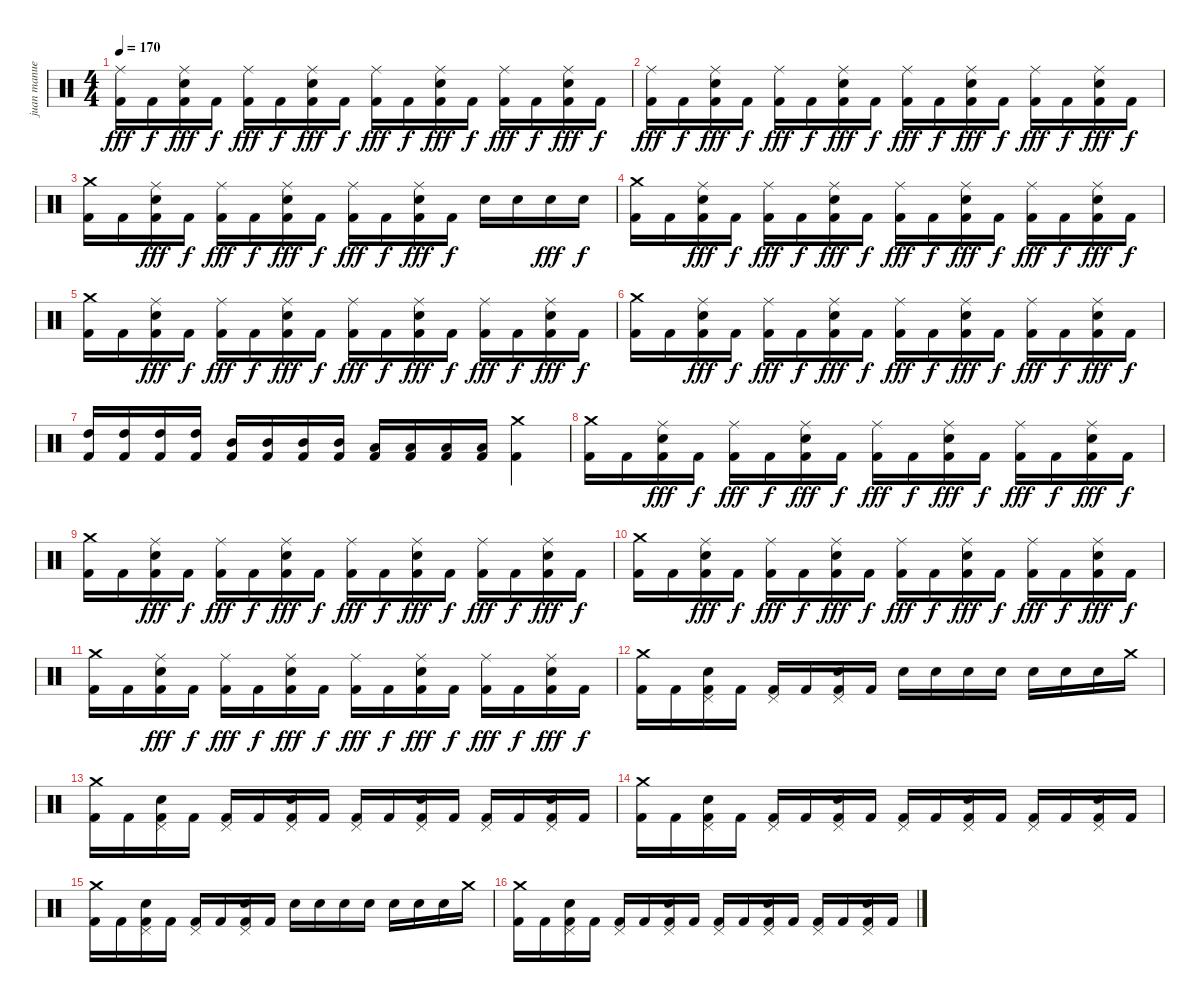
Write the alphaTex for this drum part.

\track ("juan manuel" "juan manue") {instrument percussion}
\staff {score}
\articulation defaults
\ts (4 4)
\tempo 170
\clef neutral
\ks c
("Ride (middle)" "Kick (hit) 2").16{dy fff} "Kick (hit) 2".16{dy f} ("Ride (middle)" "Electric Snare (hit)" "Kick (hit) 2").16{dy fff} "Kick (hit) 2".16{dy f} ("Ride (middle)" "Kick (hit) 2").16{dy fff} "Kick (hit) 2".16{dy f} ("Ride (middle)" "Electric Snare (hit)" "Kick (hit) 2").16{dy fff} "Kick (hit) 2".16{dy f} ("Ride (middle)" "Kick (hit) 2").16{dy fff} "Kick (hit) 2".16{dy f} ("Ride (middle)" "Electric Snare (hit)" "Kick (hit) 2").16{dy fff} "Kick (hit) 2".16{dy f} ("Ride (middle)" "Kick (hit) 2").16{dy fff} "Kick (hit) 2".16{dy f} ("Ride (middle)" "Electric Snare (hit)" "Kick (hit) 2").16{dy fff} "Kick (hit) 2".16{dy f} |
("Ride (middle)" "Kick (hit) 2").16{dy fff} "Kick (hit) 2".16{dy f} ("Ride (middle)" "Electric Snare (hit)" "Kick (hit) 2").16{dy fff} "Kick (hit) 2".16{dy f} ("Ride (middle)" "Kick (hit) 2").16{dy fff} "Kick (hit) 2".16{dy f} ("Ride (middle)" "Electric Snare (hit)" "Kick (hit) 2").16{dy fff} "Kick (hit) 2".16{dy f} ("Ride (middle)" "Kick (hit) 2").16{dy fff} "Kick (hit) 2".16{dy f} ("Ride (middle)" "Electric Snare (hit)" "Kick (hit) 2").16{dy fff} "Kick (hit) 2".16{dy f} ("Ride (middle)" "Kick (hit) 2").16{dy fff} "Kick (hit) 2".16{dy f} ("Ride (middle)" "Electric Snare (hit)" "Kick (hit) 2").16{dy fff} "Kick (hit) 2".16{dy f} |
("Crash medium (hit)" "Kick (hit) 2").16 "Kick (hit) 2".16 ("Ride (middle)" "Electric Snare (hit)" "Kick (hit) 2").16{dy fff} "Kick (hit) 2".16{dy f} ("Ride (middle)" "Kick (hit) 2").16{dy fff} "Kick (hit) 2".16{dy f} ("Ride (middle)" "Electric Snare (hit)" "Kick (hit) 2").16{dy fff} "Kick (hit) 2".16{dy f} ("Ride (middle)" "Kick (hit) 2").16{dy fff} "Kick (hit) 2".16{dy f} ("Ride (middle)" "Electric Snare (hit)" "Kick (hit) 2").16{dy fff} "Kick (hit) 2".16{dy f} "Electric Snare (hit)".16 "Electric Snare (hit)".16 "Electric Snare (hit)".16{dy fff} "Electric Snare (hit)".16{dy f} |
("Crash medium (hit)" "Kick (hit) 2").16 "Kick (hit) 2".16 ("Ride (middle)" "Electric Snare (hit)" "Kick (hit) 2").16{dy fff} "Kick (hit) 2".16{dy f} ("Ride (middle)" "Kick (hit) 2").16{dy fff} "Kick (hit) 2".16{dy f} ("Ride (middle)" "Electric Snare (hit)" "Kick (hit) 2").16{dy fff} "Kick (hit) 2".16{dy f} ("Ride (middle)" "Kick (hit) 2").16{dy fff} "Kick (hit) 2".16{dy f} ("Ride (middle)" "Electric Snare (hit)" "Kick (hit) 2").16{dy fff} "Kick (hit) 2".16{dy f} ("Ride (middle)" "Kick (hit) 2").16{dy fff} "Kick (hit) 2".16{dy f} ("Ride (middle)" "Electric Snare (hit)" "Kick (hit) 2").16{dy fff} "Kick (hit) 2".16{dy f} |
("Crash medium (hit)" "Kick (hit) 2").16 "Kick (hit) 2".16 ("Ride (middle)" "Electric Snare (hit)" "Kick (hit) 2").16{dy fff} "Kick (hit) 2".16{dy f} ("Ride (middle)" "Kick (hit) 2").16{dy fff} "Kick (hit) 2".16{dy f} ("Ride (middle)" "Electric Snare (hit)" "Kick (hit) 2").16{dy fff} "Kick (hit) 2".16{dy f} ("Ride (middle)" "Kick (hit) 2").16{dy fff} "Kick (hit) 2".16{dy f} ("Ride (middle)" "Electric Snare (hit)" "Kick (hit) 2").16{dy fff} "Kick (hit) 2".16{dy f} ("Ride (middle)" "Kick (hit) 2").16{dy fff} "Kick (hit) 2".16{dy f} ("Ride (middle)" "Electric Snare (hit)" "Kick (hit) 2").16{dy fff} "Kick (hit) 2".16{dy f} |
("Crash medium (hit)" "Kick (hit) 2").16 "Kick (hit) 2".16 ("Ride (middle)" "Electric Snare (hit)" "Kick (hit) 2").16{dy fff} "Kick (hit) 2".16{dy f} ("Ride (middle)" "Kick (hit) 2").16{dy fff} "Kick (hit) 2".16{dy f} ("Ride (middle)" "Electric Snare (hit)" "Kick (hit) 2").16{dy fff} "Kick (hit) 2".16{dy f} ("Ride (middle)" "Kick (hit) 2").16{dy fff} "Kick (hit) 2".16{dy f} ("Ride (middle)" "Electric Snare (hit)" "Kick (hit) 2").16{dy fff} "Kick (hit) 2".16{dy f} ("Ride (middle)" "Kick (hit) 2").16{dy fff} "Kick (hit) 2".16{dy f} ("Ride (middle)" "Electric Snare (hit)" "Kick (hit) 2").16{dy fff} "Kick (hit) 2".16{dy f} |
("High Tom (hit)" "Kick (hit) 2").16 ("High Tom (hit)" "Kick (hit) 2").16 ("High Tom (hit)" "Kick (hit) 2").16 ("High Tom (hit)" "Kick (hit) 2").16 ("Mid Tom (hit)" "Kick (hit) 2").16 ("Mid Tom (hit)" "Kick (hit) 2").16 ("Mid Tom (hit)" "Kick (hit) 2").16 ("Mid Tom (hit)" "Kick (hit) 2").16 ("Low Tom (hit)" "Kick (hit) 2").16 ("Low Tom (hit)" "Kick (hit) 2").16 ("Low Tom (hit)" "Kick (hit) 2").16 ("Low Tom (hit)" "Kick (hit) 2").16 ("Crash medium (hit)" "Kick (hit) 2").4 |
("Crash medium (hit)" "Kick (hit) 2").16 "Kick (hit) 2".16 ("Ride (middle)" "Electric Snare (hit)" "Kick (hit) 2").16{dy fff} "Kick (hit) 2".16{dy f} ("Ride (middle)" "Kick (hit) 2").16{dy fff} "Kick (hit) 2".16{dy f} ("Ride (middle)" "Electric Snare (hit)" "Kick (hit) 2").16{dy fff} "Kick (hit) 2".16{dy f} ("Ride (middle)" "Kick (hit) 2").16{dy fff} "Kick (hit) 2".16{dy f} ("Ride (middle)" "Electric Snare (hit)" "Kick (hit) 2").16{dy fff} "Kick (hit) 2".16{dy f} ("Ride (middle)" "Kick (hit) 2").16{dy fff} "Kick (hit) 2".16{dy f} ("Ride (middle)" "Electric Snare (hit)" "Kick (hit) 2").16{dy fff} "Kick (hit) 2".16{dy f} |
("Crash medium (hit)" "Kick (hit) 2").16 "Kick (hit) 2".16 ("Ride (middle)" "Electric Snare (hit)" "Kick (hit) 2").16{dy fff} "Kick (hit) 2".16{dy f} ("Ride (middle)" "Kick (hit) 2").16{dy fff} "Kick (hit) 2".16{dy f} ("Ride (middle)" "Electric Snare (hit)" "Kick (hit) 2").16{dy fff} "Kick (hit) 2".16{dy f} ("Ride (middle)" "Kick (hit) 2").16{dy fff} "Kick (hit) 2".16{dy f} ("Ride (middle)" "Electric Snare (hit)" "Kick (hit) 2").16{dy fff} "Kick (hit) 2".16{dy f} ("Ride (middle)" "Kick (hit) 2").16{dy fff} "Kick (hit) 2".16{dy f} ("Ride (middle)" "Electric Snare (hit)" "Kick (hit) 2").16{dy fff} "Kick (hit) 2".16{dy f} |
("Crash medium (hit)" "Kick (hit) 2").16 "Kick (hit) 2".16 ("Ride (middle)" "Electric Snare (hit)" "Kick (hit) 2").16{dy fff} "Kick (hit) 2".16{dy f} ("Ride (middle)" "Kick (hit) 2").16{dy fff} "Kick (hit) 2".16{dy f} ("Ride (middle)" "Electric Snare (hit)" "Kick (hit) 2").16{dy fff} "Kick (hit) 2".16{dy f} ("Ride (middle)" "Kick (hit) 2").16{dy fff} "Kick (hit) 2".16{dy f} ("Ride (middle)" "Electric Snare (hit)" "Kick (hit) 2").16{dy fff} "Kick (hit) 2".16{dy f} ("Ride (middle)" "Kick (hit) 2").16{dy fff} "Kick (hit) 2".16{dy f} ("Ride (middle)" "Electric Snare (hit)" "Kick (hit) 2").16{dy fff} "Kick (hit) 2".16{dy f} |
("Crash medium (hit)" "Kick (hit) 2").16 "Kick (hit) 2".16 ("Ride (middle)" "Electric Snare (hit)" "Kick (hit) 2").16{dy fff} "Kick (hit) 2".16{dy f} ("Ride (middle)" "Kick (hit) 2").16{dy fff} "Kick (hit) 2".16{dy f} ("Ride (middle)" "Electric Snare (hit)" "Kick (hit) 2").16{dy fff} "Kick (hit) 2".16{dy f} ("Ride (middle)" "Kick (hit) 2").16{dy fff} "Kick (hit) 2".16{dy f} ("Ride (middle)" "Electric Snare (hit)" "Kick (hit) 2").16{dy fff} "Kick (hit) 2".16{dy f} ("Ride (middle)" "Kick (hit) 2").16{dy fff} "Kick (hit) 2".16{dy f} ("Ride (middle)" "Electric Snare (hit)" "Kick (hit) 2").16{dy fff} "Kick (hit) 2".16{dy f} |
("Crash medium (hit)" "Kick (hit) 2").16 "Kick (hit) 2".16 ("Pedal Hi-Hat (hit)" "Electric Snare (hit)" "Kick (hit) 2").16 "Kick (hit) 2".16 ("Pedal Hi-Hat (hit)" "Kick (hit) 2").16 "Kick (hit) 2".16 ("Pedal Hi-Hat (hit)" "Electric Snare (hit)" "Kick (hit) 2").16 "Kick (hit) 2".16 "Electric Snare (hit)".16 "Electric Snare (hit)".16 "Electric Snare (hit)".16 "Electric Snare (hit)".16 "Electric Snare (hit)".16 "Electric Snare (hit)".16 "Electric Snare (hit)".16 "Crash medium (hit)".16 |
("Crash medium (hit)" "Kick (hit) 2").16 "Kick (hit) 2".16 ("Pedal Hi-Hat (hit)" "Electric Snare (hit)" "Kick (hit) 2").16 "Kick (hit) 2".16 ("Pedal Hi-Hat (hit)" "Kick (hit) 2").16 "Kick (hit) 2".16 ("Pedal Hi-Hat (hit)" "Electric Snare (hit)" "Kick (hit) 2").16 "Kick (hit) 2".16 ("Pedal Hi-Hat (hit)" "Kick (hit) 2").16 "Kick (hit) 2".16 ("Pedal Hi-Hat (hit)" "Electric Snare (hit)" "Kick (hit) 2").16 "Kick (hit) 2".16 ("Pedal Hi-Hat (hit)" "Kick (hit) 2").16 "Kick (hit) 2".16 ("Pedal Hi-Hat (hit)" "Electric Snare (hit)" "Kick (hit) 2").16 "Kick (hit) 2".16 |
("Crash medium (hit)" "Kick (hit) 2").16 "Kick (hit) 2".16 ("Pedal Hi-Hat (hit)" "Electric Snare (hit)" "Kick (hit) 2").16 "Kick (hit) 2".16 ("Pedal Hi-Hat (hit)" "Kick (hit) 2").16 "Kick (hit) 2".16 ("Pedal Hi-Hat (hit)" "Electric Snare (hit)" "Kick (hit) 2").16 "Kick (hit) 2".16 ("Pedal Hi-Hat (hit)" "Kick (hit) 2").16 "Kick (hit) 2".16 ("Pedal Hi-Hat (hit)" "Electric Snare (hit)" "Kick (hit) 2").16 "Kick (hit) 2".16 ("Pedal Hi-Hat (hit)" "Kick (hit) 2").16 "Kick (hit) 2".16 ("Pedal Hi-Hat (hit)" "Electric Snare (hit)" "Kick (hit) 2").16 "Kick (hit) 2".16 |
("Crash medium (hit)" "Kick (hit) 2").16 "Kick (hit) 2".16 ("Pedal Hi-Hat (hit)" "Electric Snare (hit)" "Kick (hit) 2").16 "Kick (hit) 2".16 ("Pedal Hi-Hat (hit)" "Kick (hit) 2").16 "Kick (hit) 2".16 ("Pedal Hi-Hat (hit)" "Electric Snare (hit)" "Kick (hit) 2").16 "Kick (hit) 2".16 "Electric Snare (hit)".16 "Electric Snare (hit)".16 "Electric Snare (hit)".16 "Electric Snare (hit)".16 "Electric Snare (hit)".16 "Electric Snare (hit)".16 "Electric Snare (hit)".16 "Crash medium (hit)".16 |
("Crash medium (hit)" "Kick (hit) 2").16 "Kick (hit) 2".16 ("Pedal Hi-Hat (hit)" "Electric Snare (hit)" "Kick (hit) 2").16 "Kick (hit) 2".16 ("Pedal Hi-Hat (hit)" "Kick (hit) 2").16 "Kick (hit) 2".16 ("Pedal Hi-Hat (hit)" "Electric Snare (hit)" "Kick (hit) 2").16 "Kick (hit) 2".16 ("Pedal Hi-Hat (hit)" "Kick (hit) 2").16 "Kick (hit) 2".16 ("Pedal Hi-Hat (hit)" "Electric Snare (hit)" "Kick (hit) 2").16 "Kick (hit) 2".16 ("Pedal Hi-Hat (hit)" "Kick (hit) 2").16 "Kick (hit) 2".16 ("Pedal Hi-Hat (hit)" "Electric Snare (hit)" "Kick (hit) 2").16 "Kick (hit) 2".16
